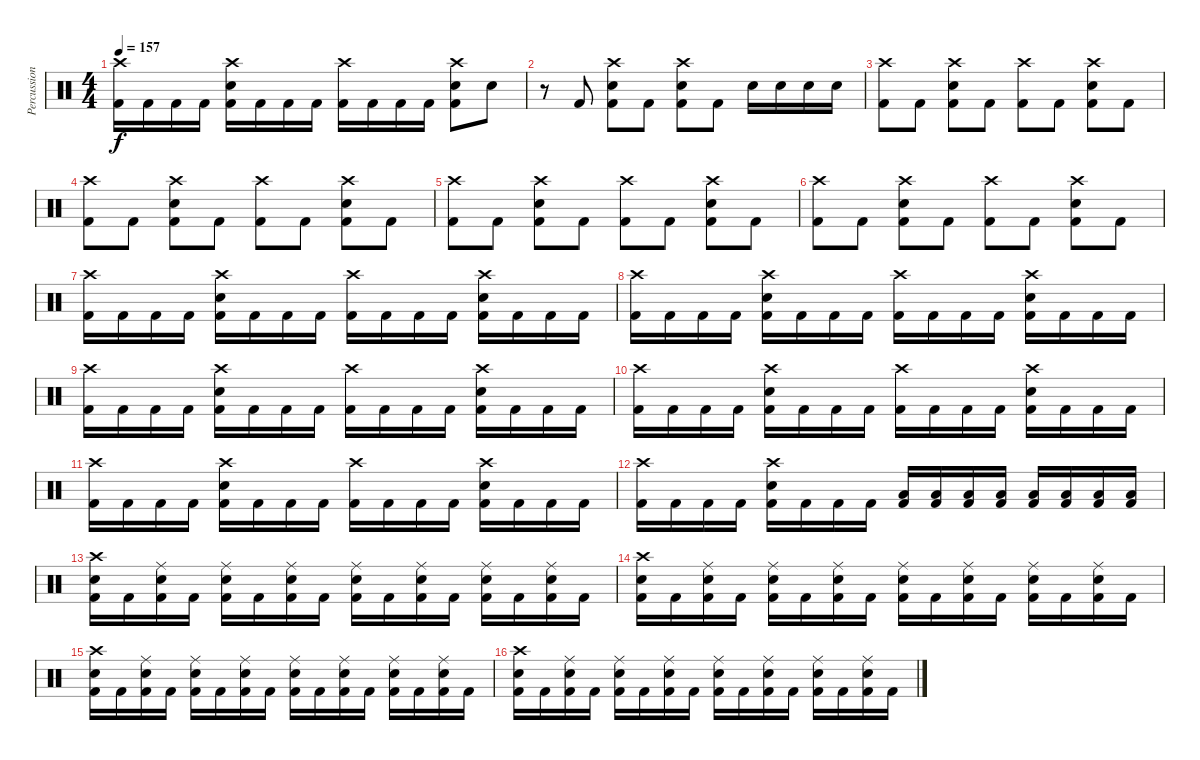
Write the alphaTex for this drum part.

\track ("Percussion" "Percussion") {instrument percussion}
\staff {score}
\articulation defaults
\ts (4 4)
\tempo 157
\clef neutral
\ks c
("Crash high (hit)" "Kick (hit) 2").16{dy f} "Kick (hit) 2".16 "Kick (hit) 2".16 "Kick (hit) 2".16 ("Crash high (hit)" "Electric Snare (hit)" "Kick (hit) 2").16 "Kick (hit) 2".16 "Kick (hit) 2".16 "Kick (hit) 2".16 ("Crash high (hit)" "Kick (hit) 2").16 "Kick (hit) 2".16 "Kick (hit) 2".16 "Kick (hit) 2".16 ("Crash high (hit)" "Electric Snare (hit)" "Kick (hit) 2").8 "Electric Snare (hit)".8 |
r.8 "Kick (hit) 2".8 ("Crash high (hit)" "Electric Snare (hit)" "Kick (hit) 2").8 "Kick (hit) 2".8 ("Crash high (hit)" "Electric Snare (hit)" "Kick (hit) 2").8 "Kick (hit) 2".8 "Electric Snare (hit)".16 "Electric Snare (hit)".16 "Electric Snare (hit)".16 "Electric Snare (hit)".16 |
("Crash high (hit)" "Kick (hit) 2").8 "Kick (hit) 2".8 ("Crash high (hit)" "Electric Snare (hit)" "Kick (hit) 2").8 "Kick (hit) 2".8 ("Crash high (hit)" "Kick (hit) 2").8 "Kick (hit) 2".8 ("Crash high (hit)" "Electric Snare (hit)" "Kick (hit) 2").8 "Kick (hit) 2".8 |
("Crash high (hit)" "Kick (hit) 2").8 "Kick (hit) 2".8 ("Crash high (hit)" "Electric Snare (hit)" "Kick (hit) 2").8 "Kick (hit) 2".8 ("Crash high (hit)" "Kick (hit) 2").8 "Kick (hit) 2".8 ("Crash high (hit)" "Electric Snare (hit)" "Kick (hit) 2").8 "Kick (hit) 2".8 |
("Crash high (hit)" "Kick (hit) 2").8 "Kick (hit) 2".8 ("Crash high (hit)" "Electric Snare (hit)" "Kick (hit) 2").8 "Kick (hit) 2".8 ("Crash high (hit)" "Kick (hit) 2").8 "Kick (hit) 2".8 ("Crash high (hit)" "Electric Snare (hit)" "Kick (hit) 2").8 "Kick (hit) 2".8 |
("Crash high (hit)" "Kick (hit) 2").8 "Kick (hit) 2".8 ("Crash high (hit)" "Electric Snare (hit)" "Kick (hit) 2").8 "Kick (hit) 2".8 ("Crash high (hit)" "Kick (hit) 2").8 "Kick (hit) 2".8 ("Crash high (hit)" "Electric Snare (hit)" "Kick (hit) 2").8 "Kick (hit) 2".8 |
("Crash high (hit)" "Kick (hit) 2").16 "Kick (hit) 2".16 "Kick (hit) 2".16 "Kick (hit) 2".16 ("Crash high (hit)" "Electric Snare (hit)" "Kick (hit) 2").16 "Kick (hit) 2".16 "Kick (hit) 2".16 "Kick (hit) 2".16 ("Crash high (hit)" "Kick (hit) 2").16 "Kick (hit) 2".16 "Kick (hit) 2".16 "Kick (hit) 2".16 ("Crash high (hit)" "Electric Snare (hit)" "Kick (hit) 2").16 "Kick (hit) 2".16 "Kick (hit) 2".16 "Kick (hit) 2".16 |
("Crash high (hit)" "Kick (hit) 2").16 "Kick (hit) 2".16 "Kick (hit) 2".16 "Kick (hit) 2".16 ("Crash high (hit)" "Electric Snare (hit)" "Kick (hit) 2").16 "Kick (hit) 2".16 "Kick (hit) 2".16 "Kick (hit) 2".16 ("Crash high (hit)" "Kick (hit) 2").16 "Kick (hit) 2".16 "Kick (hit) 2".16 "Kick (hit) 2".16 ("Crash high (hit)" "Electric Snare (hit)" "Kick (hit) 2").16 "Kick (hit) 2".16 "Kick (hit) 2".16 "Kick (hit) 2".16 |
("Crash high (hit)" "Kick (hit) 2").16 "Kick (hit) 2".16 "Kick (hit) 2".16 "Kick (hit) 2".16 ("Crash high (hit)" "Electric Snare (hit)" "Kick (hit) 2").16 "Kick (hit) 2".16 "Kick (hit) 2".16 "Kick (hit) 2".16 ("Crash high (hit)" "Kick (hit) 2").16 "Kick (hit) 2".16 "Kick (hit) 2".16 "Kick (hit) 2".16 ("Crash high (hit)" "Electric Snare (hit)" "Kick (hit) 2").16 "Kick (hit) 2".16 "Kick (hit) 2".16 "Kick (hit) 2".16 |
("Crash high (hit)" "Kick (hit) 2").16 "Kick (hit) 2".16 "Kick (hit) 2".16 "Kick (hit) 2".16 ("Crash high (hit)" "Electric Snare (hit)" "Kick (hit) 2").16 "Kick (hit) 2".16 "Kick (hit) 2".16 "Kick (hit) 2".16 ("Crash high (hit)" "Kick (hit) 2").16 "Kick (hit) 2".16 "Kick (hit) 2".16 "Kick (hit) 2".16 ("Crash high (hit)" "Electric Snare (hit)" "Kick (hit) 2").16 "Kick (hit) 2".16 "Kick (hit) 2".16 "Kick (hit) 2".16 |
("Crash high (hit)" "Kick (hit) 2").16 "Kick (hit) 2".16 "Kick (hit) 2".16 "Kick (hit) 2".16 ("Crash high (hit)" "Electric Snare (hit)" "Kick (hit) 2").16 "Kick (hit) 2".16 "Kick (hit) 2".16 "Kick (hit) 2".16 ("Crash high (hit)" "Kick (hit) 2").16 "Kick (hit) 2".16 "Kick (hit) 2".16 "Kick (hit) 2".16 ("Crash high (hit)" "Electric Snare (hit)" "Kick (hit) 2").16 "Kick (hit) 2".16 "Kick (hit) 2".16 "Kick (hit) 2".16 |
("Crash high (hit)" "Kick (hit) 2").16 "Kick (hit) 2".16 "Kick (hit) 2".16 "Kick (hit) 2".16 ("Crash high (hit)" "Electric Snare (hit)" "Kick (hit) 2").16 "Kick (hit) 2".16 "Kick (hit) 2".16 "Kick (hit) 2".16 ("Low Tom (hit)" "Kick (hit) 2").16 ("Low Tom (hit)" "Kick (hit) 2").16 ("Low Tom (hit)" "Kick (hit) 2").16 ("Low Tom (hit)" "Kick (hit) 2").16 ("Low Floor Tom (hit)" "Kick (hit) 2").16 ("Low Floor Tom (hit)" "Kick (hit) 2").16 ("Low Floor Tom (hit)" "Kick (hit) 2").16 ("Low Floor Tom (hit)" "Kick (hit) 2").16 |
("Crash high (hit)" "Electric Snare (hit)" "Kick (hit) 2").16 "Kick (hit) 2".16 ("Ride (middle)" "Electric Snare (hit)" "Kick (hit) 2").16 "Kick (hit) 2".16 ("Ride (middle)" "Electric Snare (hit)" "Kick (hit) 2").16 "Kick (hit) 2".16 ("Ride (middle)" "Electric Snare (hit)" "Kick (hit) 2").16 "Kick (hit) 2".16 ("Ride (middle)" "Electric Snare (hit)" "Kick (hit) 2").16 "Kick (hit) 2".16 ("Ride (middle)" "Electric Snare (hit)" "Kick (hit) 2").16 "Kick (hit) 2".16 ("Ride (middle)" "Electric Snare (hit)" "Kick (hit) 2").16 "Kick (hit) 2".16 ("Ride (middle)" "Electric Snare (hit)" "Kick (hit) 2").16 "Kick (hit) 2".16 |
("Crash high (hit)" "Electric Snare (hit)" "Kick (hit) 2").16 "Kick (hit) 2".16 ("Ride (middle)" "Electric Snare (hit)" "Kick (hit) 2").16 "Kick (hit) 2".16 ("Ride (middle)" "Electric Snare (hit)" "Kick (hit) 2").16 "Kick (hit) 2".16 ("Ride (middle)" "Electric Snare (hit)" "Kick (hit) 2").16 "Kick (hit) 2".16 ("Ride (middle)" "Electric Snare (hit)" "Kick (hit) 2").16 "Kick (hit) 2".16 ("Ride (middle)" "Electric Snare (hit)" "Kick (hit) 2").16 "Kick (hit) 2".16 ("Ride (middle)" "Electric Snare (hit)" "Kick (hit) 2").16 "Kick (hit) 2".16 ("Ride (middle)" "Electric Snare (hit)" "Kick (hit) 2").16 "Kick (hit) 2".16 |
("Crash high (hit)" "Electric Snare (hit)" "Kick (hit) 2").16 "Kick (hit) 2".16 ("Ride (middle)" "Electric Snare (hit)" "Kick (hit) 2").16 "Kick (hit) 2".16 ("Ride (middle)" "Electric Snare (hit)" "Kick (hit) 2").16 "Kick (hit) 2".16 ("Ride (middle)" "Electric Snare (hit)" "Kick (hit) 2").16 "Kick (hit) 2".16 ("Ride (middle)" "Electric Snare (hit)" "Kick (hit) 2").16 "Kick (hit) 2".16 ("Ride (middle)" "Electric Snare (hit)" "Kick (hit) 2").16 "Kick (hit) 2".16 ("Ride (middle)" "Electric Snare (hit)" "Kick (hit) 2").16 "Kick (hit) 2".16 ("Ride (middle)" "Electric Snare (hit)" "Kick (hit) 2").16 "Kick (hit) 2".16 |
("Crash high (hit)" "Electric Snare (hit)" "Kick (hit) 2").16 "Kick (hit) 2".16 ("Ride (middle)" "Electric Snare (hit)" "Kick (hit) 2").16 "Kick (hit) 2".16 ("Ride (middle)" "Electric Snare (hit)" "Kick (hit) 2").16 "Kick (hit) 2".16 ("Ride (middle)" "Electric Snare (hit)" "Kick (hit) 2").16 "Kick (hit) 2".16 ("Ride (middle)" "Electric Snare (hit)" "Kick (hit) 2").16 "Kick (hit) 2".16 ("Ride (middle)" "Electric Snare (hit)" "Kick (hit) 2").16 "Kick (hit) 2".16 ("Ride (middle)" "Electric Snare (hit)" "Kick (hit) 2").16 "Kick (hit) 2".16 ("Ride (middle)" "Electric Snare (hit)" "Kick (hit) 2").16 "Kick (hit) 2".16
